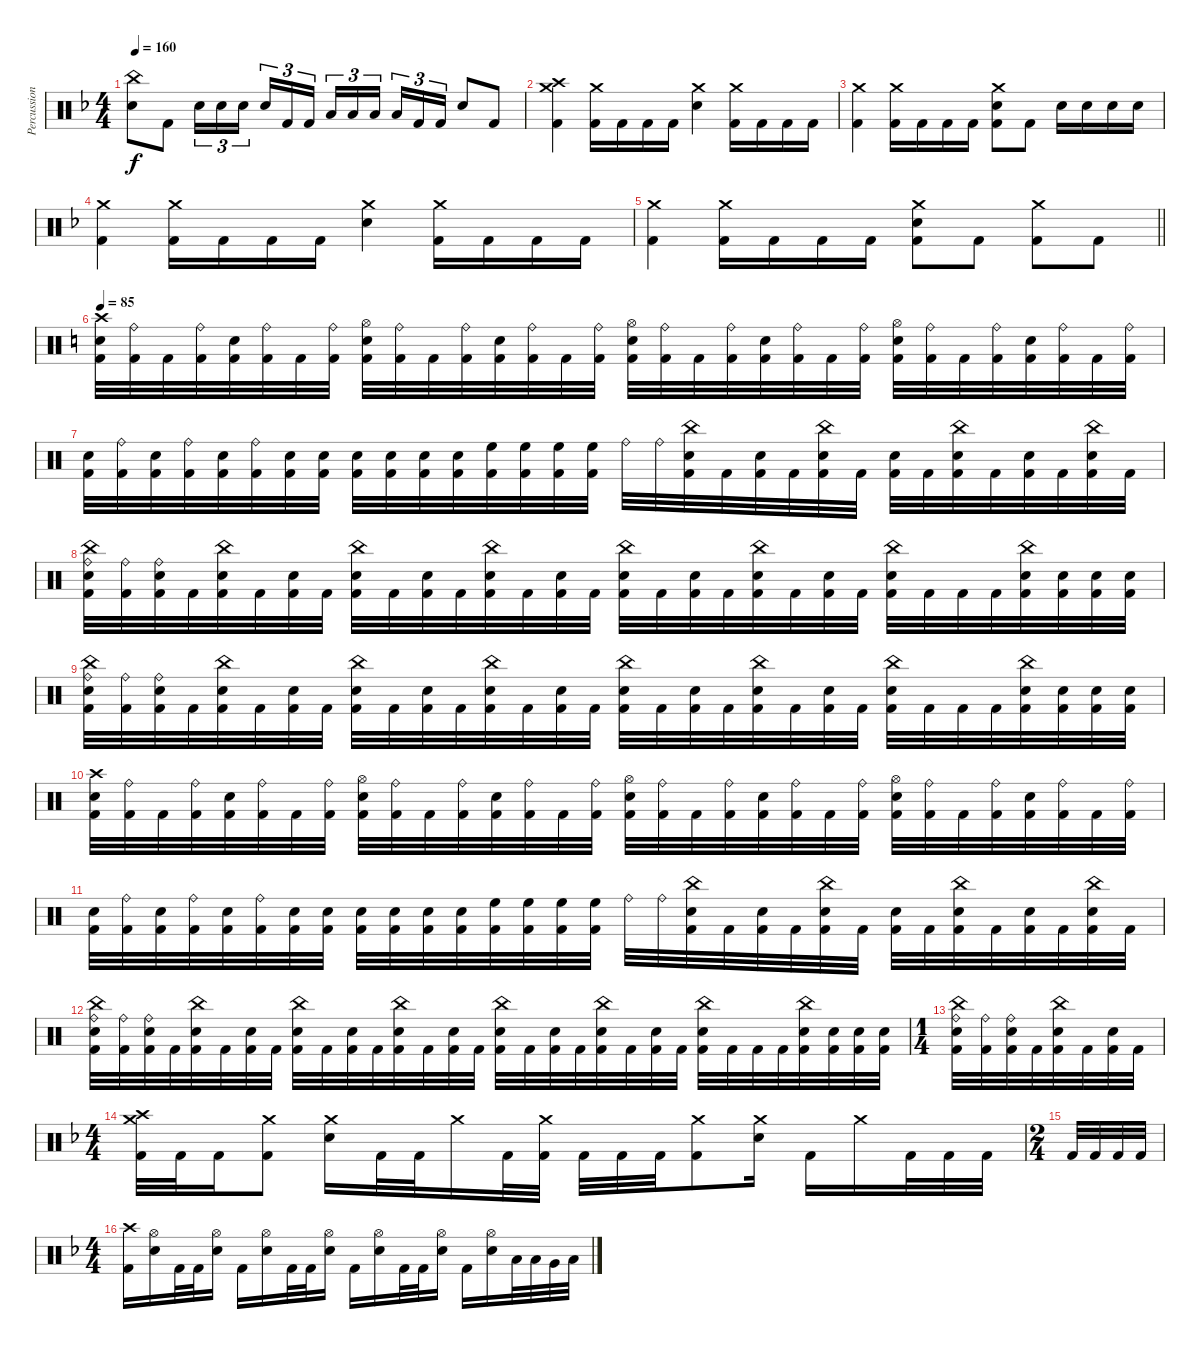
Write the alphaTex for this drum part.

\track ("Percussion" "Percussion") {instrument percussion}
\staff {score}
\articulation defaults
\ts (4 4)
\tempo 160
\clef neutral
\ks dminor
("China (hit)" "Electric Snare (hit)").8{dy f} "Kick (hit) 2".8 "Electric Snare (hit)".16{tu (3 2)} "Electric Snare (hit)".16{tu (3 2)} "Electric Snare (hit)".16{tu (3 2) beam splitsecondary} "Electric Snare (hit)".16{tu (3 2)} "Kick (hit) 2".16{tu (3 2)} "Kick (hit) 2".16{tu (3 2)} "Low Tom (hit)".16{tu (3 2)} "Low Tom (hit)".16{tu (3 2)} "Low Tom (hit)".16{tu (3 2) beam splitsecondary} "Low Tom (hit)".16{tu (3 2)} "Kick (hit) 2".16{tu (3 2)} "Kick (hit) 2".16{tu (3 2)} "Electric Snare (hit)".8 "Kick (hit) 2".8 |
("Crash medium (hit)" "Crash high (hit)" "Kick (hit) 2").4 ("Crash medium (hit)" "Kick (hit) 2").16 "Kick (hit) 2".16 "Kick (hit) 2".16 "Kick (hit) 2".16 ("Crash medium (hit)" "Electric Snare (hit)").4 ("Crash medium (hit)" "Kick (hit) 2").16 "Kick (hit) 2".16 "Kick (hit) 2".16 "Kick (hit) 2".16 |
("Crash medium (hit)" "Kick (hit) 2").4 ("Crash medium (hit)" "Kick (hit) 2").16 "Kick (hit) 2".16 "Kick (hit) 2".16 "Kick (hit) 2".16 ("Crash medium (hit)" "Electric Snare (hit)" "Kick (hit) 2").8 "Kick (hit) 2".8 "Electric Snare (hit)".16 "Electric Snare (hit)".16 "Electric Snare (hit)".16 "Electric Snare (hit)".16 |
("Crash medium (hit)" "Kick (hit) 2").4 ("Crash medium (hit)" "Kick (hit) 2").16 "Kick (hit) 2".16 "Kick (hit) 2".16 "Kick (hit) 2".16 ("Crash medium (hit)" "Electric Snare (hit)").4 ("Crash medium (hit)" "Kick (hit) 2").16 "Kick (hit) 2".16 "Kick (hit) 2".16 "Kick (hit) 2".16 |
\barLineRight lightlight
("Crash medium (hit)" "Kick (hit) 2").4 ("Crash medium (hit)" "Kick (hit) 2").16 "Kick (hit) 2".16 "Kick (hit) 2".16 "Kick (hit) 2".16 ("Crash medium (hit)" "Electric Snare (hit)" "Kick (hit) 2").8 "Kick (hit) 2".8 ("Crash medium (hit)" "Kick (hit) 2").8 "Kick (hit) 2".8 |
\tempo 85
\ks c
("Crash high (hit)" "Snare (hit) 2" "Kick (hit) 2").32 ("Ride (bell)" "Kick (hit) 2").32 "Kick (hit) 2".32 ("Ride (bell)" "Kick (hit) 2").32 ("Snare (hit) 2" "Kick (hit) 2").32 ("Ride (bell)" "Kick (hit) 2").32 "Kick (hit) 2".32 ("Ride (bell)" "Kick (hit) 2").32 ("Hi-Hat (open)" "Snare (hit) 2" "Kick (hit) 2").32 ("Ride (bell)" "Kick (hit) 2").32 "Kick (hit) 2".32 ("Ride (bell)" "Kick (hit) 2").32 ("Snare (hit) 2" "Kick (hit) 2").32 ("Ride (bell)" "Kick (hit) 2").32 "Kick (hit) 2".32 ("Ride (bell)" "Kick (hit) 2").32 ("Hi-Hat (open)" "Snare (hit) 2" "Kick (hit) 2").32 ("Ride (bell)" "Kick (hit) 2").32 "Kick (hit) 2".32 ("Ride (bell)" "Kick (hit) 2").32 ("Snare (hit) 2" "Kick (hit) 2").32 ("Ride (bell)" "Kick (hit) 2").32 "Kick (hit) 2".32 ("Ride (bell)" "Kick (hit) 2").32 ("Hi-Hat (open)" "Snare (hit) 2" "Kick (hit) 2").32 ("Ride (bell)" "Kick (hit) 2").32 "Kick (hit) 2".32 ("Ride (bell)" "Kick (hit) 2").32 ("Snare (hit) 2" "Kick (hit) 2").32 ("Ride (bell)" "Kick (hit) 2").32 "Kick (hit) 2".32 ("Ride (bell)" "Kick (hit) 2").32 |
("Snare (hit) 2" "Kick (hit) 2").32 ("Ride (bell)" "Kick (hit) 2").32 ("Snare (hit) 2" "Kick (hit) 2").32 ("Ride (bell)" "Kick (hit) 2").32 ("Snare (hit) 2" "Kick (hit) 2").32 ("Ride (bell)" "Kick (hit) 2").32 ("Snare (hit) 2" "Kick (hit) 2").32 ("Snare (hit) 2" "Kick (hit) 2").32 ("Snare (hit) 2" "Kick (hit) 2").32 ("Snare (hit) 2" "Kick (hit) 2").32 ("Snare (hit) 2" "Kick (hit) 2").32 ("Snare (hit) 2" "Kick (hit) 2").32 ("High Floor Tom (hit)" "Kick (hit) 2").32 ("High Floor Tom (hit)" "Kick (hit) 2").32 ("High Floor Tom (hit)" "Kick (hit) 2").32 ("High Floor Tom (hit)" "Kick (hit) 2").32 "Ride (bell)".32 "Ride (bell)".32 ("China (hit)" "Snare (hit) 2" "Kick (hit) 2").32 "Kick (hit) 2".32 ("Snare (hit) 2" "Kick (hit) 2").32 "Kick (hit) 2".32 ("China (hit)" "Snare (hit) 2" "Kick (hit) 2").32 "Kick (hit) 2".32 ("Snare (hit) 2" "Kick (hit) 2").32 "Kick (hit) 2".32 ("China (hit)" "Snare (hit) 2" "Kick (hit) 2").32 "Kick (hit) 2".32 ("Snare (hit) 2" "Kick (hit) 2").32 "Kick (hit) 2".32 ("China (hit)" "Snare (hit) 2" "Kick (hit) 2").32 "Kick (hit) 2".32 |
("China (hit)" "Ride (bell)" "Snare (hit) 2" "Kick (hit) 2").32 ("Ride (bell)" "Kick (hit) 2").32 ("Ride (bell)" "Snare (hit) 2" "Kick (hit) 2").32 "Kick (hit) 2".32 ("China (hit)" "Snare (hit) 2" "Kick (hit) 2").32 "Kick (hit) 2".32 ("Snare (hit) 2" "Kick (hit) 2").32 "Kick (hit) 2".32 ("China (hit)" "Snare (hit) 2" "Kick (hit) 2").32 "Kick (hit) 2".32 ("Snare (hit) 2" "Kick (hit) 2").32 "Kick (hit) 2".32 ("China (hit)" "Snare (hit) 2" "Kick (hit) 2").32 "Kick (hit) 2".32 ("Snare (hit) 2" "Kick (hit) 2").32 "Kick (hit) 2".32 ("China (hit)" "Snare (hit) 2" "Kick (hit) 2").32 "Kick (hit) 2".32 ("Snare (hit) 2" "Kick (hit) 2").32 "Kick (hit) 2".32 ("China (hit)" "Snare (hit) 2" "Kick (hit) 2").32 "Kick (hit) 2".32 ("Snare (hit) 2" "Kick (hit) 2").32 "Kick (hit) 2".32 ("China (hit)" "Snare (hit) 2" "Kick (hit) 2").32 "Kick (hit) 2".32 "Kick (hit) 2".32 "Kick (hit) 2".32 ("China (hit)" "Snare (hit) 2" "Kick (hit) 2").32 ("Snare (hit) 2" "Kick (hit) 2").32 ("Snare (hit) 2" "Kick (hit) 2").32 ("Snare (hit) 2" "Kick (hit) 2").32 |
("China (hit)" "Ride (bell)" "Snare (hit) 2" "Kick (hit) 2").32 ("Ride (bell)" "Kick (hit) 2").32 ("Ride (bell)" "Snare (hit) 2" "Kick (hit) 2").32 "Kick (hit) 2".32 ("China (hit)" "Snare (hit) 2" "Kick (hit) 2").32 "Kick (hit) 2".32 ("Snare (hit) 2" "Kick (hit) 2").32 "Kick (hit) 2".32 ("China (hit)" "Snare (hit) 2" "Kick (hit) 2").32 "Kick (hit) 2".32 ("Snare (hit) 2" "Kick (hit) 2").32 "Kick (hit) 2".32 ("China (hit)" "Snare (hit) 2" "Kick (hit) 2").32 "Kick (hit) 2".32 ("Snare (hit) 2" "Kick (hit) 2").32 "Kick (hit) 2".32 ("China (hit)" "Snare (hit) 2" "Kick (hit) 2").32 "Kick (hit) 2".32 ("Snare (hit) 2" "Kick (hit) 2").32 "Kick (hit) 2".32 ("China (hit)" "Snare (hit) 2" "Kick (hit) 2").32 "Kick (hit) 2".32 ("Snare (hit) 2" "Kick (hit) 2").32 "Kick (hit) 2".32 ("China (hit)" "Snare (hit) 2" "Kick (hit) 2").32 "Kick (hit) 2".32 "Kick (hit) 2".32 "Kick (hit) 2".32 ("China (hit)" "Snare (hit) 2" "Kick (hit) 2").32 ("Snare (hit) 2" "Kick (hit) 2").32 ("Snare (hit) 2" "Kick (hit) 2").32 ("Snare (hit) 2" "Kick (hit) 2").32 |
("Crash high (hit)" "Snare (hit) 2" "Kick (hit) 2").32 ("Ride (bell)" "Kick (hit) 2").32 "Kick (hit) 2".32 ("Ride (bell)" "Kick (hit) 2").32 ("Snare (hit) 2" "Kick (hit) 2").32 ("Ride (bell)" "Kick (hit) 2").32 "Kick (hit) 2".32 ("Ride (bell)" "Kick (hit) 2").32 ("Hi-Hat (open)" "Snare (hit) 2" "Kick (hit) 2").32 ("Ride (bell)" "Kick (hit) 2").32 "Kick (hit) 2".32 ("Ride (bell)" "Kick (hit) 2").32 ("Snare (hit) 2" "Kick (hit) 2").32 ("Ride (bell)" "Kick (hit) 2").32 "Kick (hit) 2".32 ("Ride (bell)" "Kick (hit) 2").32 ("Hi-Hat (open)" "Snare (hit) 2" "Kick (hit) 2").32 ("Ride (bell)" "Kick (hit) 2").32 "Kick (hit) 2".32 ("Ride (bell)" "Kick (hit) 2").32 ("Snare (hit) 2" "Kick (hit) 2").32 ("Ride (bell)" "Kick (hit) 2").32 "Kick (hit) 2".32 ("Ride (bell)" "Kick (hit) 2").32 ("Hi-Hat (open)" "Snare (hit) 2" "Kick (hit) 2").32 ("Ride (bell)" "Kick (hit) 2").32 "Kick (hit) 2".32 ("Ride (bell)" "Kick (hit) 2").32 ("Snare (hit) 2" "Kick (hit) 2").32 ("Ride (bell)" "Kick (hit) 2").32 "Kick (hit) 2".32 ("Ride (bell)" "Kick (hit) 2").32 |
("Snare (hit) 2" "Kick (hit) 2").32 ("Ride (bell)" "Kick (hit) 2").32 ("Snare (hit) 2" "Kick (hit) 2").32 ("Ride (bell)" "Kick (hit) 2").32 ("Snare (hit) 2" "Kick (hit) 2").32 ("Ride (bell)" "Kick (hit) 2").32 ("Snare (hit) 2" "Kick (hit) 2").32 ("Snare (hit) 2" "Kick (hit) 2").32 ("Snare (hit) 2" "Kick (hit) 2").32 ("Snare (hit) 2" "Kick (hit) 2").32 ("Snare (hit) 2" "Kick (hit) 2").32 ("Snare (hit) 2" "Kick (hit) 2").32 ("High Floor Tom (hit)" "Kick (hit) 2").32 ("High Floor Tom (hit)" "Kick (hit) 2").32 ("High Floor Tom (hit)" "Kick (hit) 2").32 ("High Floor Tom (hit)" "Kick (hit) 2").32 "Ride (bell)".32 "Ride (bell)".32 ("China (hit)" "Snare (hit) 2" "Kick (hit) 2").32 "Kick (hit) 2".32 ("Snare (hit) 2" "Kick (hit) 2").32 "Kick (hit) 2".32 ("China (hit)" "Snare (hit) 2" "Kick (hit) 2").32 "Kick (hit) 2".32 ("Snare (hit) 2" "Kick (hit) 2").32 "Kick (hit) 2".32 ("China (hit)" "Snare (hit) 2" "Kick (hit) 2").32 "Kick (hit) 2".32 ("Snare (hit) 2" "Kick (hit) 2").32 "Kick (hit) 2".32 ("China (hit)" "Snare (hit) 2" "Kick (hit) 2").32 "Kick (hit) 2".32 |
("China (hit)" "Ride (bell)" "Snare (hit) 2" "Kick (hit) 2").32 ("Ride (bell)" "Kick (hit) 2").32 ("Ride (bell)" "Snare (hit) 2" "Kick (hit) 2").32 "Kick (hit) 2".32 ("China (hit)" "Snare (hit) 2" "Kick (hit) 2").32 "Kick (hit) 2".32 ("Snare (hit) 2" "Kick (hit) 2").32 "Kick (hit) 2".32 ("China (hit)" "Snare (hit) 2" "Kick (hit) 2").32 "Kick (hit) 2".32 ("Snare (hit) 2" "Kick (hit) 2").32 "Kick (hit) 2".32 ("China (hit)" "Snare (hit) 2" "Kick (hit) 2").32 "Kick (hit) 2".32 ("Snare (hit) 2" "Kick (hit) 2").32 "Kick (hit) 2".32 ("China (hit)" "Snare (hit) 2" "Kick (hit) 2").32 "Kick (hit) 2".32 ("Snare (hit) 2" "Kick (hit) 2").32 "Kick (hit) 2".32 ("China (hit)" "Snare (hit) 2" "Kick (hit) 2").32 "Kick (hit) 2".32 ("Snare (hit) 2" "Kick (hit) 2").32 "Kick (hit) 2".32 ("China (hit)" "Snare (hit) 2" "Kick (hit) 2").32 "Kick (hit) 2".32 "Kick (hit) 2".32 "Kick (hit) 2".32 ("China (hit)" "Snare (hit) 2" "Kick (hit) 2").32 ("Snare (hit) 2" "Kick (hit) 2").32 ("Snare (hit) 2" "Kick (hit) 2").32 ("Snare (hit) 2" "Kick (hit) 2").32 |
\ts (1 4)
("China (hit)" "Ride (bell)" "Snare (hit) 2" "Kick (hit) 2").32 ("Ride (bell)" "Kick (hit) 2").32 ("Ride (bell)" "Snare (hit) 2" "Kick (hit) 2").32 "Kick (hit) 2".32 ("China (hit)" "Snare (hit) 2" "Kick (hit) 2").32 "Kick (hit) 2".32 ("Snare (hit) 2" "Kick (hit) 2").32 "Kick (hit) 2".32 |
\ts (4 4)
\ks dminor
("Crash medium (hit)" "Crash high (hit)" "Kick (hit) 2").32 "Kick (hit) 2".32 "Kick (hit) 2".16 ("Crash medium (hit)" "Kick (hit) 2").8 ("Crash medium (hit)" "Electric Snare (hit)").16 "Kick (hit) 2".32 "Kick (hit) 2".32 "Crash medium (hit)".16 "Kick (hit) 2".32 ("Crash medium (hit)" "Kick (hit) 2").32 "Kick (hit) 2".32 "Kick (hit) 2".32 "Kick (hit) 2".32 ("Crash medium (hit)" "Kick (hit) 2").8 ("Crash medium (hit)" "Electric Snare (hit)").16 "Kick (hit) 2".16 "Crash medium (hit)".16 "Kick (hit) 2".32 "Kick (hit) 2".32 "Kick (hit) 2".32 |
\ts (2 4)
"Kick (hit) 2".32 "Kick (hit) 2".32 "Kick (hit) 2".32 "Kick (hit) 2".32 |
\ts (4 4)
("Crash high (hit)" "Kick (hit) 2").16{volume 14} ("Hi-Hat (open)" "Electric Snare (hit)").16 "Kick (hit) 2".32 "Kick (hit) 2".32 ("Hi-Hat (open)" "Electric Snare (hit)").16 "Kick (hit) 2".16 ("Hi-Hat (open)" "Electric Snare (hit)").16 "Kick (hit) 2".32 "Kick (hit) 2".32 ("Hi-Hat (open)" "Electric Snare (hit)").16 "Kick (hit) 2".16 ("Hi-Hat (open)" "Electric Snare (hit)").16 "Kick (hit) 2".32 "Kick (hit) 2".32 ("Hi-Hat (open)" "Electric Snare (hit)").16 "Kick (hit) 2".16 ("Hi-Hat (open)" "Electric Snare (hit)").16 "Low Tom (hit)".32 "Low Tom (hit)".32 "Very Low Tom (hit)".32 "Low Floor Tom (hit)".32
